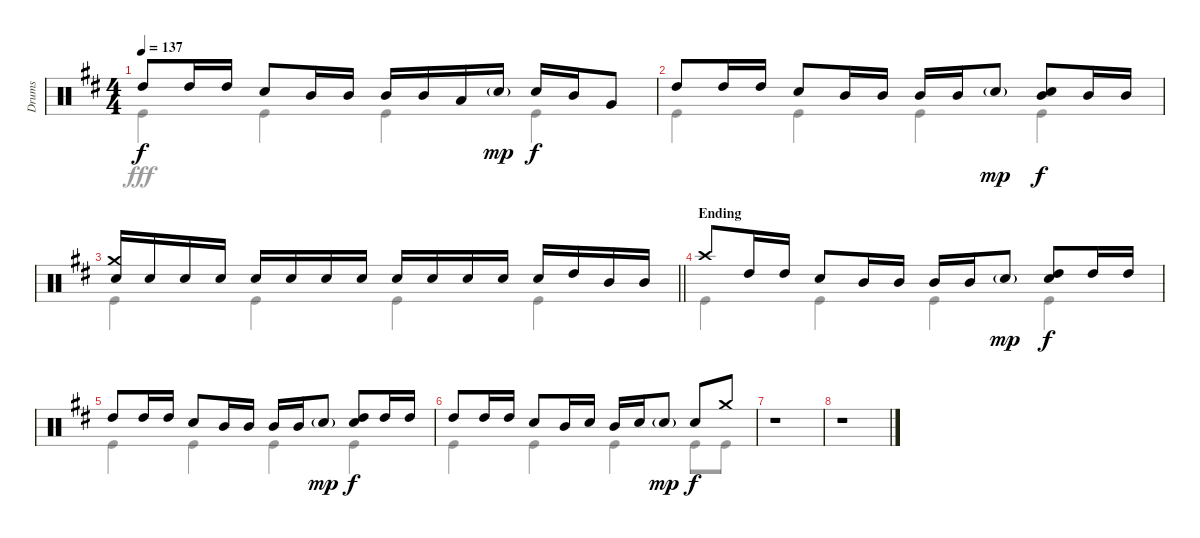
\track ("Drums" "Drums") {instrument percussion}
\staff {score}
\articulation defaults
\voice
\ts (4 4)
\tempo 137
\clef neutral
\ks d "High Tom (hit)".8{dy f} "High Tom (hit)".16 "High Tom (hit)".16 "Snare (hit) 2".8 "Mid Tom (hit)".16 "Mid Tom (hit)".16 "Mid Tom (hit)".16 "Mid Tom (hit)".16 "Low Tom (hit)".16 "Snare (hit) 2"{g}.16{dy mp} "Snare (hit) 2".16{dy f} "Mid Tom (hit)".16 "Very Low Tom (hit)".8
|
"High Tom (hit)".8 "High Tom (hit)".16 "High Tom (hit)".16 "Snare (hit) 2".8 "Mid Tom (hit)".16 "Mid Tom (hit)".16 "Mid Tom (hit)".16 "Mid Tom (hit)".16 "Snare (hit) 2"{g}.8{dy mp} ("Snare (hit) 2" "Mid Tom (hit)").8{dy f} "Mid Tom (hit)".16 "Mid Tom (hit)".16 |
\barLineRight lightlight
("Crash medium (hit)" "Snare (hit) 2").16 "Snare (hit) 2".16 "Snare (hit) 2".16 "Snare (hit) 2".16 "Snare (hit) 2".16 "Snare (hit) 2".16 "Snare (hit) 2".16 "Snare (hit) 2".16 "Snare (hit) 2".16 "Snare (hit) 2".16 "Snare (hit) 2".16 "Snare (hit) 2".16 "Snare (hit) 2".16 "High Tom (hit)".16 "Mid Tom (hit)".16 "Mid Tom (hit)".16 |
\section ("" "Ending")
"Crash high (hit)".8 "High Tom (hit)".16 "High Tom (hit)".16 "Snare (hit) 2".8 "Mid Tom (hit)".16 "Mid Tom (hit)".16 "Mid Tom (hit)".16 "Mid Tom (hit)".16 "Snare (hit) 2"{g}.8{dy mp} ("Snare (hit) 2" "High Tom (hit)").8{dy f} "High Tom (hit)".16 "High Tom (hit)".16 |
"High Tom (hit)".8 "High Tom (hit)".16 "High Tom (hit)".16 "Snare (hit) 2".8 "Mid Tom (hit)".16 "Mid Tom (hit)".16 "Mid Tom (hit)".16 "Mid Tom (hit)".16 "Snare (hit) 2"{g}.8{dy mp} ("Snare (hit) 2" "High Tom (hit)").8{dy f} "High Tom (hit)".16 "High Tom (hit)".16 |
"High Tom (hit)".8 "High Tom (hit)".16 "High Tom (hit)".16 "Snare (hit) 2".8 "Mid Tom (hit)".16 "Snare (hit) 2".16 "Mid Tom (hit)".16 "Snare (hit) 2".16 "Snare (hit) 2"{g}.8{dy mp} "Snare (hit) 2".8{dy f} "Crash medium (hit)".8 |
r.1 |
r.1
\voice
\clef neutral
\ottava regular
\simile none
\ks d "Kick (hit)".4{dy fff} "Kick (hit)".4 "Kick (hit)".4 "Kick (hit)".4
|
"Kick (hit)".4 "Kick (hit)".4 "Kick (hit)".4 "Kick (hit)".4 |
\barLineRight lightlight "Kick (hit)".4 "Kick (hit)".4 "Kick (hit)".4 "Kick (hit)".4
|
"Kick (hit)".4 "Kick (hit)".4 "Kick (hit)".4 "Kick (hit)".4 |
"Kick (hit)".4 "Kick (hit)".4 "Kick (hit)".4 "Kick (hit)".4 |
"Kick (hit)".4 "Kick (hit)".4 "Kick (hit)".4 "Kick (hit)".8 "Kick (hit)".8 |
r.1 |
r.1
